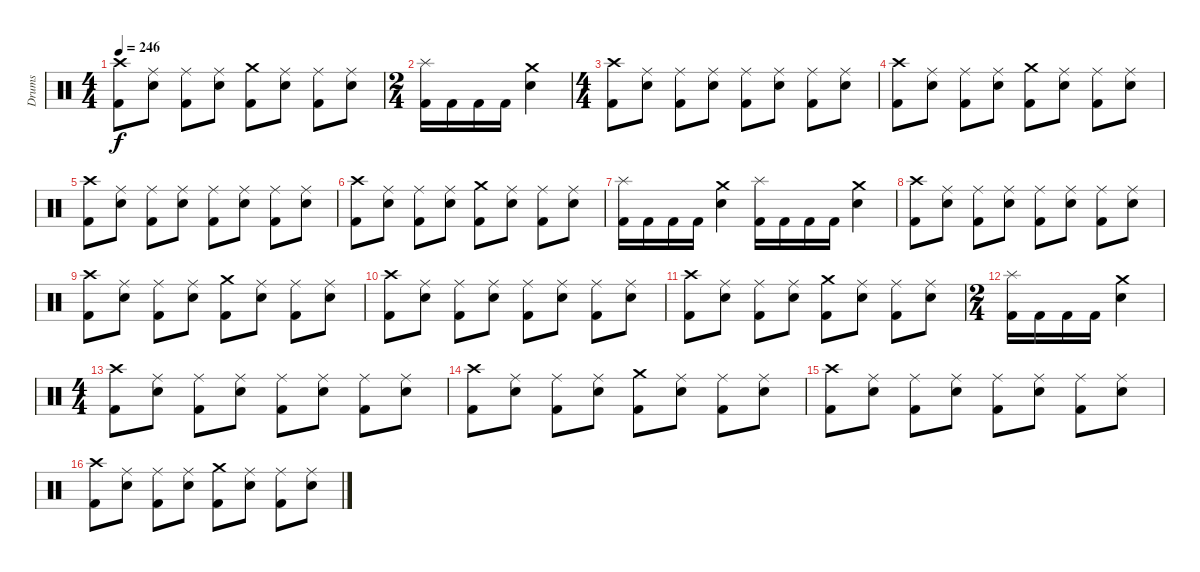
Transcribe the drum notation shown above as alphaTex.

\track ("Drums" "Drums") {instrument percussion}
\staff {score}
\articulation defaults
\ts (4 4)
\tempo 246
\clef neutral
\ks c
("Crash high (hit)" "Kick (hit) 2").8{dy f} ("Ride (middle)" "Snare (hit) 2").8 ("Ride (middle)" "Kick (hit) 2").8 ("Ride (middle)" "Snare (hit) 2").8 ("Crash medium (hit)" "Kick (hit) 2").8 ("Ride (middle)" "Snare (hit) 2").8 ("Ride (middle)" "Kick (hit) 2").8 ("Ride (middle)" "Snare (hit) 2").8 |
\ts (2 4)
("Splash (hit)" "Kick (hit) 2").16 "Kick (hit) 2".16 "Kick (hit) 2".16 "Kick (hit) 2".16 ("Crash medium (hit)" "Snare (hit) 2").4 |
\ts (4 4)
("Crash high (hit)" "Kick (hit) 2").8 ("Ride (middle)" "Snare (hit) 2").8 ("Ride (middle)" "Kick (hit) 2").8 ("Ride (middle)" "Snare (hit) 2").8 ("Ride (middle)" "Kick (hit) 2").8 ("Ride (middle)" "Snare (hit) 2").8 ("Ride (middle)" "Kick (hit) 2").8 ("Ride (middle)" "Snare (hit) 2").8 |
("Crash high (hit)" "Kick (hit) 2").8 ("Ride (middle)" "Snare (hit) 2").8 ("Ride (middle)" "Kick (hit) 2").8 ("Ride (middle)" "Snare (hit) 2").8 ("Crash medium (hit)" "Kick (hit) 2").8 ("Ride (middle)" "Snare (hit) 2").8 ("Ride (middle)" "Kick (hit) 2").8 ("Ride (middle)" "Snare (hit) 2").8 |
("Crash high (hit)" "Kick (hit) 2").8 ("Ride (middle)" "Snare (hit) 2").8 ("Ride (middle)" "Kick (hit) 2").8 ("Ride (middle)" "Snare (hit) 2").8 ("Ride (middle)" "Kick (hit) 2").8 ("Ride (middle)" "Snare (hit) 2").8 ("Ride (middle)" "Kick (hit) 2").8 ("Ride (middle)" "Snare (hit) 2").8 |
("Crash high (hit)" "Kick (hit) 2").8 ("Ride (middle)" "Snare (hit) 2").8 ("Ride (middle)" "Kick (hit) 2").8 ("Ride (middle)" "Snare (hit) 2").8 ("Crash medium (hit)" "Kick (hit) 2").8 ("Ride (middle)" "Snare (hit) 2").8 ("Ride (middle)" "Kick (hit) 2").8 ("Ride (middle)" "Snare (hit) 2").8 |
("Splash (hit)" "Kick (hit) 2").16 "Kick (hit) 2".16 "Kick (hit) 2".16 "Kick (hit) 2".16 ("Crash medium (hit)" "Snare (hit) 2").4 ("Splash (hit)" "Kick (hit) 2").16 "Kick (hit) 2".16 "Kick (hit) 2".16 "Kick (hit) 2".16 ("Crash medium (hit)" "Snare (hit) 2").4 |
("Crash high (hit)" "Kick (hit) 2").8 ("Ride (middle)" "Snare (hit) 2").8 ("Ride (middle)" "Kick (hit) 2").8 ("Ride (middle)" "Snare (hit) 2").8 ("Ride (middle)" "Kick (hit) 2").8 ("Ride (middle)" "Snare (hit) 2").8 ("Ride (middle)" "Kick (hit) 2").8 ("Ride (middle)" "Snare (hit) 2").8 |
("Crash high (hit)" "Kick (hit) 2").8 ("Ride (middle)" "Snare (hit) 2").8 ("Ride (middle)" "Kick (hit) 2").8 ("Ride (middle)" "Snare (hit) 2").8 ("Crash medium (hit)" "Kick (hit) 2").8 ("Ride (middle)" "Snare (hit) 2").8 ("Ride (middle)" "Kick (hit) 2").8 ("Ride (middle)" "Snare (hit) 2").8 |
("Crash high (hit)" "Kick (hit) 2").8 ("Ride (middle)" "Snare (hit) 2").8 ("Ride (middle)" "Kick (hit) 2").8 ("Ride (middle)" "Snare (hit) 2").8 ("Ride (middle)" "Kick (hit) 2").8 ("Ride (middle)" "Snare (hit) 2").8 ("Ride (middle)" "Kick (hit) 2").8 ("Ride (middle)" "Snare (hit) 2").8 |
("Crash high (hit)" "Kick (hit) 2").8 ("Ride (middle)" "Snare (hit) 2").8 ("Ride (middle)" "Kick (hit) 2").8 ("Ride (middle)" "Snare (hit) 2").8 ("Crash medium (hit)" "Kick (hit) 2").8 ("Ride (middle)" "Snare (hit) 2").8 ("Ride (middle)" "Kick (hit) 2").8 ("Ride (middle)" "Snare (hit) 2").8 |
\ts (2 4)
("Splash (hit)" "Kick (hit) 2").16 "Kick (hit) 2".16 "Kick (hit) 2".16 "Kick (hit) 2".16 ("Crash medium (hit)" "Snare (hit) 2").4 |
\ts (4 4)
("Crash high (hit)" "Kick (hit) 2").8 ("Ride (middle)" "Snare (hit) 2").8 ("Ride (middle)" "Kick (hit) 2").8 ("Ride (middle)" "Snare (hit) 2").8 ("Ride (middle)" "Kick (hit) 2").8 ("Ride (middle)" "Snare (hit) 2").8 ("Ride (middle)" "Kick (hit) 2").8 ("Ride (middle)" "Snare (hit) 2").8 |
("Crash high (hit)" "Kick (hit) 2").8 ("Ride (middle)" "Snare (hit) 2").8 ("Ride (middle)" "Kick (hit) 2").8 ("Ride (middle)" "Snare (hit) 2").8 ("Crash medium (hit)" "Kick (hit) 2").8 ("Ride (middle)" "Snare (hit) 2").8 ("Ride (middle)" "Kick (hit) 2").8 ("Ride (middle)" "Snare (hit) 2").8 |
("Crash high (hit)" "Kick (hit) 2").8 ("Ride (middle)" "Snare (hit) 2").8 ("Ride (middle)" "Kick (hit) 2").8 ("Ride (middle)" "Snare (hit) 2").8 ("Ride (middle)" "Kick (hit) 2").8 ("Ride (middle)" "Snare (hit) 2").8 ("Ride (middle)" "Kick (hit) 2").8 ("Ride (middle)" "Snare (hit) 2").8 |
("Crash high (hit)" "Kick (hit) 2").8 ("Ride (middle)" "Snare (hit) 2").8 ("Ride (middle)" "Kick (hit) 2").8 ("Ride (middle)" "Snare (hit) 2").8 ("Crash medium (hit)" "Kick (hit) 2").8 ("Ride (middle)" "Snare (hit) 2").8 ("Ride (middle)" "Kick (hit) 2").8 ("Ride (middle)" "Snare (hit) 2").8
